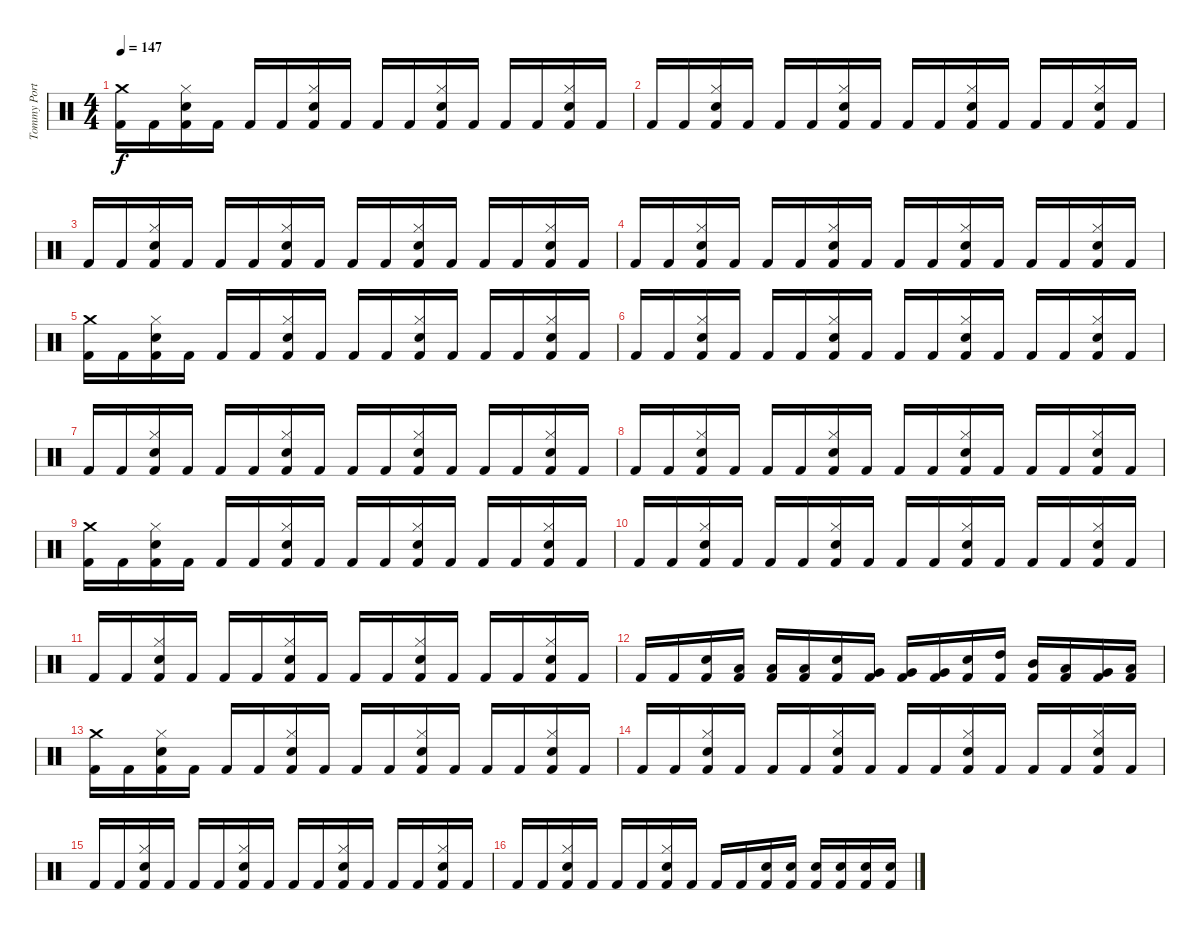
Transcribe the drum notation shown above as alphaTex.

\track ("Tommy Portino" "Tommy Port") {instrument percussion}
\staff {score}
\articulation defaults
\ts (4 4)
\tempo 147
\clef neutral
\ks c
("Crash medium (hit)" "Kick (hit) 2").16{dy f} "Kick (hit) 2".16 ("Hi-Hat (closed)" "Electric Snare (hit)" "Kick (hit) 2").16 "Kick (hit) 2".16 "Kick (hit) 2".16 "Kick (hit) 2".16 ("Hi-Hat (closed)" "Electric Snare (hit)" "Kick (hit) 2").16 "Kick (hit) 2".16 "Kick (hit) 2".16 "Kick (hit) 2".16 ("Hi-Hat (closed)" "Electric Snare (hit)" "Kick (hit) 2").16 "Kick (hit) 2".16 "Kick (hit) 2".16 "Kick (hit) 2".16 ("Hi-Hat (closed)" "Electric Snare (hit)" "Kick (hit) 2").16 "Kick (hit) 2".16 |
"Kick (hit) 2".16 "Kick (hit) 2".16 ("Hi-Hat (closed)" "Electric Snare (hit)" "Kick (hit) 2").16 "Kick (hit) 2".16 "Kick (hit) 2".16 "Kick (hit) 2".16 ("Hi-Hat (closed)" "Electric Snare (hit)" "Kick (hit) 2").16 "Kick (hit) 2".16 "Kick (hit) 2".16 "Kick (hit) 2".16 ("Hi-Hat (closed)" "Electric Snare (hit)" "Kick (hit) 2").16 "Kick (hit) 2".16 "Kick (hit) 2".16 "Kick (hit) 2".16 ("Hi-Hat (closed)" "Electric Snare (hit)" "Kick (hit) 2").16 "Kick (hit) 2".16 |
"Kick (hit) 2".16 "Kick (hit) 2".16 ("Hi-Hat (closed)" "Electric Snare (hit)" "Kick (hit) 2").16 "Kick (hit) 2".16 "Kick (hit) 2".16 "Kick (hit) 2".16 ("Hi-Hat (closed)" "Electric Snare (hit)" "Kick (hit) 2").16 "Kick (hit) 2".16 "Kick (hit) 2".16 "Kick (hit) 2".16 ("Hi-Hat (closed)" "Electric Snare (hit)" "Kick (hit) 2").16 "Kick (hit) 2".16 "Kick (hit) 2".16 "Kick (hit) 2".16 ("Hi-Hat (closed)" "Electric Snare (hit)" "Kick (hit) 2").16 "Kick (hit) 2".16 |
"Kick (hit) 2".16 "Kick (hit) 2".16 ("Hi-Hat (closed)" "Electric Snare (hit)" "Kick (hit) 2").16 "Kick (hit) 2".16 "Kick (hit) 2".16 "Kick (hit) 2".16 ("Hi-Hat (closed)" "Electric Snare (hit)" "Kick (hit) 2").16 "Kick (hit) 2".16 "Kick (hit) 2".16 "Kick (hit) 2".16 ("Hi-Hat (closed)" "Electric Snare (hit)" "Kick (hit) 2").16 "Kick (hit) 2".16 "Kick (hit) 2".16 "Kick (hit) 2".16 ("Hi-Hat (closed)" "Electric Snare (hit)" "Kick (hit) 2").16 "Kick (hit) 2".16 |
("Crash medium (hit)" "Kick (hit) 2").16 "Kick (hit) 2".16 ("Hi-Hat (closed)" "Electric Snare (hit)" "Kick (hit) 2").16 "Kick (hit) 2".16 "Kick (hit) 2".16 "Kick (hit) 2".16 ("Hi-Hat (closed)" "Electric Snare (hit)" "Kick (hit) 2").16 "Kick (hit) 2".16 "Kick (hit) 2".16 "Kick (hit) 2".16 ("Hi-Hat (closed)" "Electric Snare (hit)" "Kick (hit) 2").16 "Kick (hit) 2".16 "Kick (hit) 2".16 "Kick (hit) 2".16 ("Hi-Hat (closed)" "Electric Snare (hit)" "Kick (hit) 2").16 "Kick (hit) 2".16 |
"Kick (hit) 2".16 "Kick (hit) 2".16 ("Hi-Hat (closed)" "Electric Snare (hit)" "Kick (hit) 2").16 "Kick (hit) 2".16 "Kick (hit) 2".16 "Kick (hit) 2".16 ("Hi-Hat (closed)" "Electric Snare (hit)" "Kick (hit) 2").16 "Kick (hit) 2".16 "Kick (hit) 2".16 "Kick (hit) 2".16 ("Hi-Hat (closed)" "Electric Snare (hit)" "Kick (hit) 2").16 "Kick (hit) 2".16 "Kick (hit) 2".16 "Kick (hit) 2".16 ("Hi-Hat (closed)" "Electric Snare (hit)" "Kick (hit) 2").16 "Kick (hit) 2".16 |
"Kick (hit) 2".16 "Kick (hit) 2".16 ("Hi-Hat (closed)" "Electric Snare (hit)" "Kick (hit) 2").16 "Kick (hit) 2".16 "Kick (hit) 2".16 "Kick (hit) 2".16 ("Hi-Hat (closed)" "Electric Snare (hit)" "Kick (hit) 2").16 "Kick (hit) 2".16 "Kick (hit) 2".16 "Kick (hit) 2".16 ("Hi-Hat (closed)" "Electric Snare (hit)" "Kick (hit) 2").16 "Kick (hit) 2".16 "Kick (hit) 2".16 "Kick (hit) 2".16 ("Hi-Hat (closed)" "Electric Snare (hit)" "Kick (hit) 2").16 "Kick (hit) 2".16 |
"Kick (hit) 2".16 "Kick (hit) 2".16 ("Hi-Hat (closed)" "Electric Snare (hit)" "Kick (hit) 2").16 "Kick (hit) 2".16 "Kick (hit) 2".16 "Kick (hit) 2".16 ("Hi-Hat (closed)" "Electric Snare (hit)" "Kick (hit) 2").16 "Kick (hit) 2".16 "Kick (hit) 2".16 "Kick (hit) 2".16 ("Hi-Hat (closed)" "Electric Snare (hit)" "Kick (hit) 2").16 "Kick (hit) 2".16 "Kick (hit) 2".16 "Kick (hit) 2".16 ("Hi-Hat (closed)" "Electric Snare (hit)" "Kick (hit) 2").16 "Kick (hit) 2".16 |
("Crash medium (hit)" "Kick (hit) 2").16 "Kick (hit) 2".16 ("Hi-Hat (closed)" "Electric Snare (hit)" "Kick (hit) 2").16 "Kick (hit) 2".16 "Kick (hit) 2".16 "Kick (hit) 2".16 ("Hi-Hat (closed)" "Electric Snare (hit)" "Kick (hit) 2").16 "Kick (hit) 2".16 "Kick (hit) 2".16 "Kick (hit) 2".16 ("Hi-Hat (closed)" "Electric Snare (hit)" "Kick (hit) 2").16 "Kick (hit) 2".16 "Kick (hit) 2".16 "Kick (hit) 2".16 ("Hi-Hat (closed)" "Electric Snare (hit)" "Kick (hit) 2").16 "Kick (hit) 2".16 |
"Kick (hit) 2".16 "Kick (hit) 2".16 ("Hi-Hat (closed)" "Electric Snare (hit)" "Kick (hit) 2").16 "Kick (hit) 2".16 "Kick (hit) 2".16 "Kick (hit) 2".16 ("Hi-Hat (closed)" "Electric Snare (hit)" "Kick (hit) 2").16 "Kick (hit) 2".16 "Kick (hit) 2".16 "Kick (hit) 2".16 ("Hi-Hat (closed)" "Electric Snare (hit)" "Kick (hit) 2").16 "Kick (hit) 2".16 "Kick (hit) 2".16 "Kick (hit) 2".16 ("Hi-Hat (closed)" "Electric Snare (hit)" "Kick (hit) 2").16 "Kick (hit) 2".16 |
"Kick (hit) 2".16 "Kick (hit) 2".16 ("Hi-Hat (closed)" "Electric Snare (hit)" "Kick (hit) 2").16 "Kick (hit) 2".16 "Kick (hit) 2".16 "Kick (hit) 2".16 ("Hi-Hat (closed)" "Electric Snare (hit)" "Kick (hit) 2").16 "Kick (hit) 2".16 "Kick (hit) 2".16 "Kick (hit) 2".16 ("Hi-Hat (closed)" "Electric Snare (hit)" "Kick (hit) 2").16 "Kick (hit) 2".16 "Kick (hit) 2".16 "Kick (hit) 2".16 ("Hi-Hat (closed)" "Electric Snare (hit)" "Kick (hit) 2").16 "Kick (hit) 2".16 |
"Kick (hit) 2".16 "Kick (hit) 2".16 ("Electric Snare (hit)" "Kick (hit) 2").16 ("Low Tom (hit)" "Kick (hit) 2").16 ("Low Tom (hit)" "Kick (hit) 2").16 ("Low Tom (hit)" "Kick (hit) 2").16 ("Electric Snare (hit)" "Kick (hit) 2").16 ("Very Low Tom (hit)" "Kick (hit) 2").16 ("Very Low Tom (hit)" "Kick (hit) 2").16 ("Very Low Tom (hit)" "Kick (hit) 2").16 ("Electric Snare (hit)" "Kick (hit) 2").16 ("High Tom (hit)" "Kick (hit) 2").16 ("Mid Tom (hit)" "Kick (hit) 2").16 ("Low Tom (hit)" "Kick (hit) 2").16 ("Very Low Tom (hit)" "Kick (hit) 2").16 ("Low Floor Tom (hit)" "Kick (hit) 2").16 |
("Crash medium (hit)" "Kick (hit) 2").16 "Kick (hit) 2".16 ("Hi-Hat (closed)" "Electric Snare (hit)" "Kick (hit) 2").16 "Kick (hit) 2".16 "Kick (hit) 2".16 "Kick (hit) 2".16 ("Hi-Hat (closed)" "Electric Snare (hit)" "Kick (hit) 2").16 "Kick (hit) 2".16 "Kick (hit) 2".16 "Kick (hit) 2".16 ("Hi-Hat (closed)" "Electric Snare (hit)" "Kick (hit) 2").16 "Kick (hit) 2".16 "Kick (hit) 2".16 "Kick (hit) 2".16 ("Hi-Hat (closed)" "Electric Snare (hit)" "Kick (hit) 2").16 "Kick (hit) 2".16 |
"Kick (hit) 2".16 "Kick (hit) 2".16 ("Hi-Hat (closed)" "Electric Snare (hit)" "Kick (hit) 2").16 "Kick (hit) 2".16 "Kick (hit) 2".16 "Kick (hit) 2".16 ("Hi-Hat (closed)" "Electric Snare (hit)" "Kick (hit) 2").16 "Kick (hit) 2".16 "Kick (hit) 2".16 "Kick (hit) 2".16 ("Hi-Hat (closed)" "Electric Snare (hit)" "Kick (hit) 2").16 "Kick (hit) 2".16 "Kick (hit) 2".16 "Kick (hit) 2".16 ("Hi-Hat (closed)" "Electric Snare (hit)" "Kick (hit) 2").16 "Kick (hit) 2".16 |
"Kick (hit) 2".16 "Kick (hit) 2".16 ("Hi-Hat (closed)" "Electric Snare (hit)" "Kick (hit) 2").16 "Kick (hit) 2".16 "Kick (hit) 2".16 "Kick (hit) 2".16 ("Hi-Hat (closed)" "Electric Snare (hit)" "Kick (hit) 2").16 "Kick (hit) 2".16 "Kick (hit) 2".16 "Kick (hit) 2".16 ("Hi-Hat (closed)" "Electric Snare (hit)" "Kick (hit) 2").16 "Kick (hit) 2".16 "Kick (hit) 2".16 "Kick (hit) 2".16 ("Hi-Hat (closed)" "Electric Snare (hit)" "Kick (hit) 2").16 "Kick (hit) 2".16 |
"Kick (hit) 2".16 "Kick (hit) 2".16 ("Hi-Hat (closed)" "Electric Snare (hit)" "Kick (hit) 2").16 "Kick (hit) 2".16 "Kick (hit) 2".16 "Kick (hit) 2".16 ("Hi-Hat (closed)" "Electric Snare (hit)" "Kick (hit) 2").16 "Kick (hit) 2".16 "Kick (hit) 2".16 "Kick (hit) 2".16 ("Electric Snare (hit)" "Kick (hit) 2").16 ("Electric Snare (hit)" "Kick (hit) 2").16 ("Electric Snare (hit)" "Kick (hit) 2").16 ("Electric Snare (hit)" "Kick (hit) 2").16 ("Electric Snare (hit)" "Kick (hit) 2").16 ("Electric Snare (hit)" "Kick (hit) 2").16
